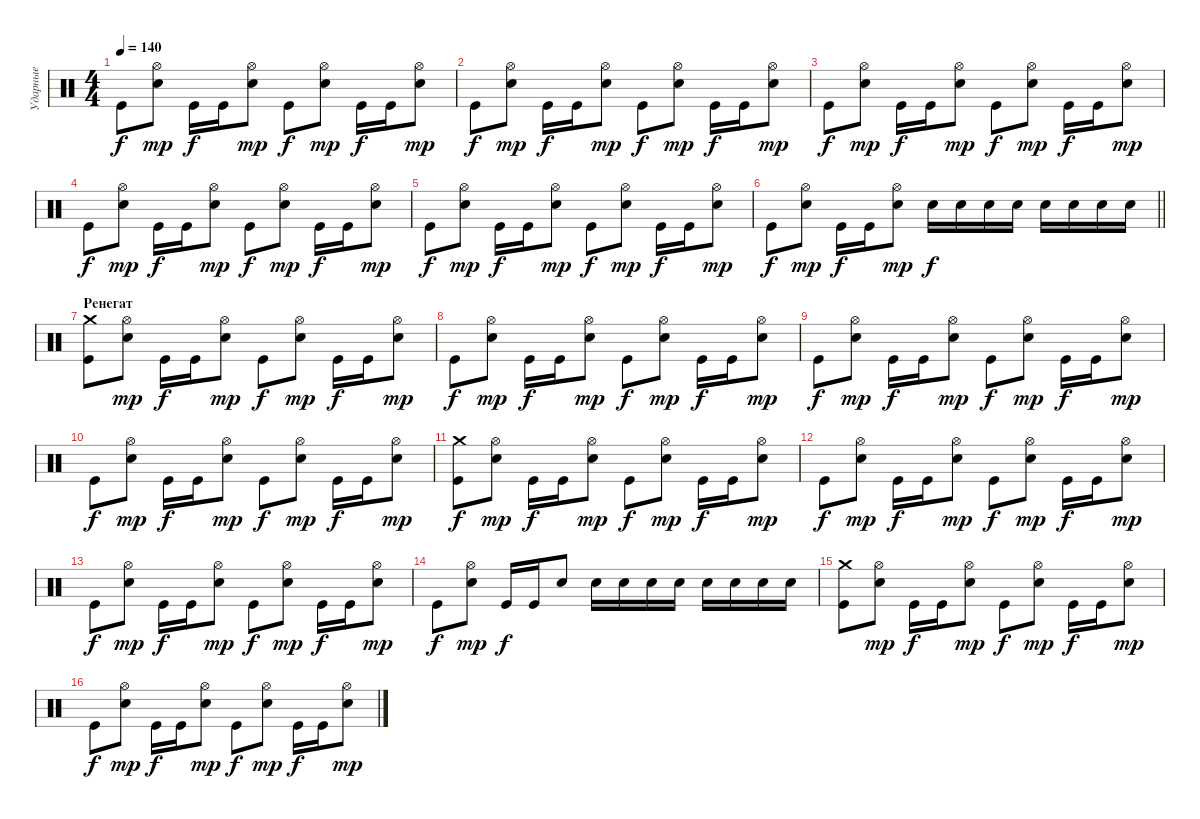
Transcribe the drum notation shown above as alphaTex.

\track ("Ударные" "Ударные") {instrument percussion}
\staff {score}
\articulation defaults
\ts (4 4)
\tempo 140
\clef neutral
\ks c "Kick (hit)".8{dy f}
("Hi-Hat (open)" "Electric Snare (hit)").8{dy mp} "Kick (hit)".16{dy f} "Kick (hit)".16 ("Hi-Hat (open)" "Electric Snare (hit)").8{dy mp} "Kick (hit)".8{dy f} ("Hi-Hat (open)" "Electric Snare (hit)").8{dy mp} "Kick (hit)".16{dy f} "Kick (hit)".16 ("Hi-Hat (open)" "Electric Snare (hit)").8{dy mp} |
"Kick (hit)".8{dy f} ("Hi-Hat (open)" "Electric Snare (hit)").8{dy mp} "Kick (hit)".16{dy f} "Kick (hit)".16 ("Hi-Hat (open)" "Electric Snare (hit)").8{dy mp} "Kick (hit)".8{dy f} ("Hi-Hat (open)" "Electric Snare (hit)").8{dy mp} "Kick (hit)".16{dy f} "Kick (hit)".16 ("Hi-Hat (open)" "Electric Snare (hit)").8{dy mp} |
"Kick (hit)".8{dy f} ("Hi-Hat (open)" "Electric Snare (hit)").8{dy mp} "Kick (hit)".16{dy f} "Kick (hit)".16 ("Hi-Hat (open)" "Electric Snare (hit)").8{dy mp} "Kick (hit)".8{dy f} ("Hi-Hat (open)" "Electric Snare (hit)").8{dy mp} "Kick (hit)".16{dy f} "Kick (hit)".16 ("Hi-Hat (open)" "Electric Snare (hit)").8{dy mp} |
"Kick (hit)".8{dy f} ("Hi-Hat (open)" "Electric Snare (hit)").8{dy mp} "Kick (hit)".16{dy f} "Kick (hit)".16 ("Hi-Hat (open)" "Electric Snare (hit)").8{dy mp} "Kick (hit)".8{dy f} ("Hi-Hat (open)" "Electric Snare (hit)").8{dy mp} "Kick (hit)".16{dy f} "Kick (hit)".16 ("Hi-Hat (open)" "Electric Snare (hit)").8{dy mp} |
"Kick (hit)".8{dy f} ("Hi-Hat (open)" "Electric Snare (hit)").8{dy mp} "Kick (hit)".16{dy f} "Kick (hit)".16 ("Hi-Hat (open)" "Electric Snare (hit)").8{dy mp} "Kick (hit)".8{dy f} ("Hi-Hat (open)" "Electric Snare (hit)").8{dy mp} "Kick (hit)".16{dy f} "Kick (hit)".16 ("Hi-Hat (open)" "Electric Snare (hit)").8{dy mp} |
\barLineRight lightlight "Kick (hit)".8{dy f}
("Hi-Hat (open)" "Electric Snare (hit)").8{dy mp} "Kick (hit)".16{dy f} "Kick (hit)".16 ("Hi-Hat (open)" "Electric Snare (hit)").8{dy mp} "Electric Snare (hit)".16{dy f} "Electric Snare (hit)".16 "Electric Snare (hit)".16 "Electric Snare (hit)".16 "Electric Snare (hit)".16 "Electric Snare (hit)".16 "Electric Snare (hit)".16 "Electric Snare (hit)".16 |
\section ("" "Ренегат")
("Crash medium (hit)" "Kick (hit)").8 ("Hi-Hat (open)" "Electric Snare (hit)").8{dy mp} "Kick (hit)".16{dy f} "Kick (hit)".16 ("Hi-Hat (open)" "Electric Snare (hit)").8{dy mp} "Kick (hit)".8{dy f} ("Hi-Hat (open)" "Electric Snare (hit)").8{dy mp} "Kick (hit)".16{dy f} "Kick (hit)".16 ("Hi-Hat (open)" "Electric Snare (hit)").8{dy mp} |
"Kick (hit)".8{dy f} ("Hi-Hat (open)" "Electric Snare (hit)").8{dy mp} "Kick (hit)".16{dy f} "Kick (hit)".16 ("Hi-Hat (open)" "Electric Snare (hit)").8{dy mp} "Kick (hit)".8{dy f} ("Hi-Hat (open)" "Electric Snare (hit)").8{dy mp} "Kick (hit)".16{dy f} "Kick (hit)".16 ("Hi-Hat (open)" "Electric Snare (hit)").8{dy mp} |
"Kick (hit)".8{dy f} ("Hi-Hat (open)" "Electric Snare (hit)").8{dy mp} "Kick (hit)".16{dy f} "Kick (hit)".16 ("Hi-Hat (open)" "Electric Snare (hit)").8{dy mp} "Kick (hit)".8{dy f} ("Hi-Hat (open)" "Electric Snare (hit)").8{dy mp} "Kick (hit)".16{dy f} "Kick (hit)".16 ("Hi-Hat (open)" "Electric Snare (hit)").8{dy mp} |
"Kick (hit)".8{dy f} ("Hi-Hat (open)" "Electric Snare (hit)").8{dy mp} "Kick (hit)".16{dy f} "Kick (hit)".16 ("Hi-Hat (open)" "Electric Snare (hit)").8{dy mp} "Kick (hit)".8{dy f} ("Hi-Hat (open)" "Electric Snare (hit)").8{dy mp} "Kick (hit)".16{dy f} "Kick (hit)".16 ("Hi-Hat (open)" "Electric Snare (hit)").8{dy mp} |
("Crash medium (hit)" "Kick (hit)").8{dy f} ("Hi-Hat (open)" "Electric Snare (hit)").8{dy mp} "Kick (hit)".16{dy f} "Kick (hit)".16 ("Hi-Hat (open)" "Electric Snare (hit)").8{dy mp} "Kick (hit)".8{dy f} ("Hi-Hat (open)" "Electric Snare (hit)").8{dy mp} "Kick (hit)".16{dy f} "Kick (hit)".16 ("Hi-Hat (open)" "Electric Snare (hit)").8{dy mp} |
"Kick (hit)".8{dy f} ("Hi-Hat (open)" "Electric Snare (hit)").8{dy mp} "Kick (hit)".16{dy f} "Kick (hit)".16 ("Hi-Hat (open)" "Electric Snare (hit)").8{dy mp} "Kick (hit)".8{dy f} ("Hi-Hat (open)" "Electric Snare (hit)").8{dy mp} "Kick (hit)".16{dy f} "Kick (hit)".16 ("Hi-Hat (open)" "Electric Snare (hit)").8{dy mp} |
"Kick (hit)".8{dy f} ("Hi-Hat (open)" "Electric Snare (hit)").8{dy mp} "Kick (hit)".16{dy f} "Kick (hit)".16 ("Hi-Hat (open)" "Electric Snare (hit)").8{dy mp} "Kick (hit)".8{dy f} ("Hi-Hat (open)" "Electric Snare (hit)").8{dy mp} "Kick (hit)".16{dy f} "Kick (hit)".16 ("Hi-Hat (open)" "Electric Snare (hit)").8{dy mp} |
"Kick (hit)".8{dy f} ("Hi-Hat (open)" "Electric Snare (hit)").8{dy mp} "Kick (hit)".16{dy f} "Kick (hit)".16 "Electric Snare (hit)".8 "Electric Snare (hit)".16 "Electric Snare (hit)".16 "Electric Snare (hit)".16 "Electric Snare (hit)".16 "Electric Snare (hit)".16 "Electric Snare (hit)".16 "Electric Snare (hit)".16 "Electric Snare (hit)".16 |
("Crash medium (hit)" "Kick (hit)").8 ("Hi-Hat (open)" "Electric Snare (hit)").8{dy mp} "Kick (hit)".16{dy f} "Kick (hit)".16 ("Hi-Hat (open)" "Electric Snare (hit)").8{dy mp} "Kick (hit)".8{dy f} ("Hi-Hat (open)" "Electric Snare (hit)").8{dy mp} "Kick (hit)".16{dy f} "Kick (hit)".16 ("Hi-Hat (open)" "Electric Snare (hit)").8{dy mp} |
"Kick (hit)".8{dy f} ("Hi-Hat (open)" "Electric Snare (hit)").8{dy mp} "Kick (hit)".16{dy f} "Kick (hit)".16 ("Hi-Hat (open)" "Electric Snare (hit)").8{dy mp} "Kick (hit)".8{dy f} ("Hi-Hat (open)" "Electric Snare (hit)").8{dy mp} "Kick (hit)".16{dy f} "Kick (hit)".16 ("Hi-Hat (open)" "Electric Snare (hit)").8{dy mp}
